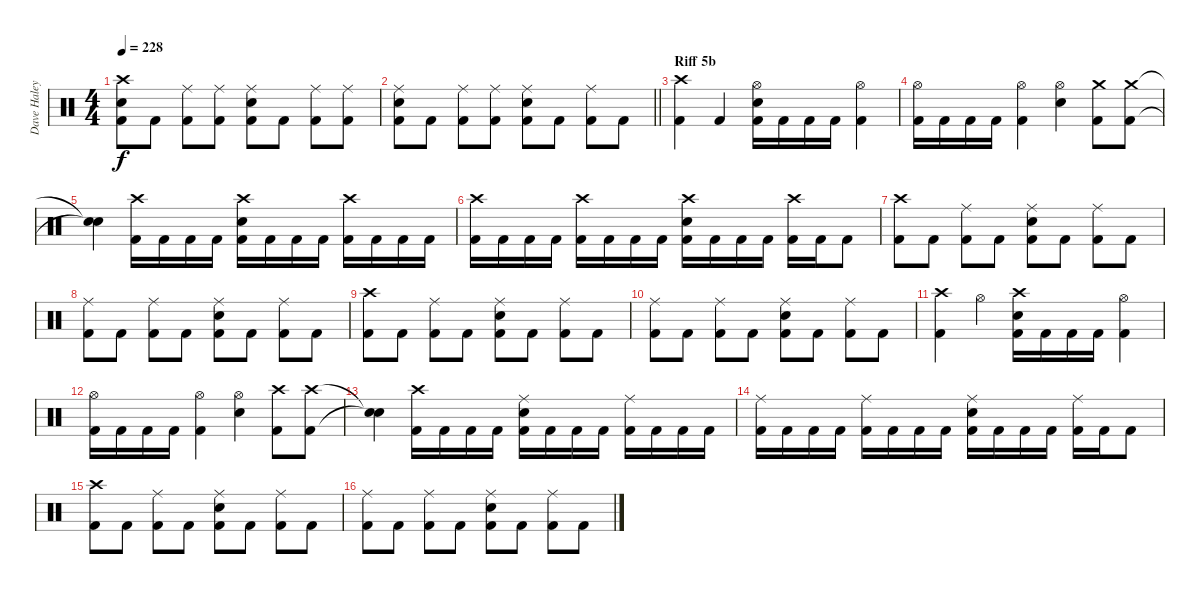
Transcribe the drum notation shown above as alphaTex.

\track ("Dave Haley" "Dave Haley") {instrument percussion}
\staff {score}
\articulation defaults
\ts (4 4)
\tempo 228
\clef neutral
\ks c
("Crash high (hit)" "Snare (hit) 2" "Kick (hit) 2").8{dy f} "Kick (hit) 2".8 ("Ride (middle)" "Kick (hit) 2").8 ("Ride (middle)" "Kick (hit) 2").8 ("Ride (middle)" "Snare (hit) 2" "Kick (hit) 2").8 "Kick (hit) 2".8 ("Ride (middle)" "Kick (hit) 2").8 ("Ride (middle)" "Kick (hit) 2").8 |
\barLineRight lightlight
("Ride (middle)" "Snare (hit) 2" "Kick (hit) 2").8 "Kick (hit) 2".8 ("Ride (middle)" "Kick (hit) 2").8 ("Ride (middle)" "Kick (hit) 2").8 ("Ride (middle)" "Snare (hit) 2" "Kick (hit) 2").8 "Kick (hit) 2".8 ("Ride (middle)" "Kick (hit) 2").8 "Kick (hit) 2".8 |
\section ("" "Riff 5b")
("Crash high (hit)" "Kick (hit) 2").4 "Kick (hit) 2".4 ("Hi-Hat (open)" "Snare (hit) 2" "Kick (hit) 2").16 "Kick (hit) 2".16 "Kick (hit) 2".16 "Kick (hit) 2".16 ("Hi-Hat (open)" "Kick (hit) 2").4 |
("Hi-Hat (open)" "Kick (hit) 2").16 "Kick (hit) 2".16 "Kick (hit) 2".16 "Kick (hit) 2".16 ("Hi-Hat (open)" "Kick (hit) 2").4 ("Hi-Hat (open)" "Snare (hit) 2").4 ("Crash medium (hit)" "Kick (hit) 2").8 ("Crash medium (hit)" "Kick (hit) 2").8 |
("Snare (hit)"{t} "Snare (hit)"{t}).4 ("Crash high (hit)" "Kick (hit) 2").16 "Kick (hit) 2".16 "Kick (hit) 2".16 "Kick (hit) 2".16 ("Crash high (hit)" "Snare (hit) 2" "Kick (hit) 2").16 "Kick (hit) 2".16 "Kick (hit) 2".16 "Kick (hit) 2".16 ("Crash high (hit)" "Kick (hit) 2").16 "Kick (hit) 2".16 "Kick (hit) 2".16 "Kick (hit) 2".16 |
("Crash high (hit)" "Kick (hit) 2").16 "Kick (hit) 2".16 "Kick (hit) 2".16 "Kick (hit) 2".16 ("Crash high (hit)" "Kick (hit) 2").16 "Kick (hit) 2".16 "Kick (hit) 2".16 "Kick (hit) 2".16 ("Crash high (hit)" "Snare (hit) 2" "Kick (hit) 2").16 "Kick (hit) 2".16 "Kick (hit) 2".16 "Kick (hit) 2".16 ("Crash high (hit)" "Kick (hit) 2").16 "Kick (hit) 2".16 "Kick (hit) 2".8 |
("Crash high (hit)" "Kick (hit) 2").8 "Kick (hit) 2".8 ("Ride (middle)" "Kick (hit) 2").8 "Kick (hit) 2".8 ("Ride (middle)" "Snare (hit) 2" "Kick (hit) 2").8 "Kick (hit) 2".8 ("Ride (middle)" "Kick (hit) 2").8 "Kick (hit) 2".8 |
("Ride (middle)" "Kick (hit) 2").8 "Kick (hit) 2".8 ("Ride (middle)" "Kick (hit) 2").8 "Kick (hit) 2".8 ("Ride (middle)" "Snare (hit) 2" "Kick (hit) 2").8 "Kick (hit) 2".8 ("Ride (middle)" "Kick (hit) 2").8 "Kick (hit) 2".8 |
("Crash high (hit)" "Kick (hit) 2").8 "Kick (hit) 2".8 ("Ride (middle)" "Kick (hit) 2").8 "Kick (hit) 2".8 ("Ride (middle)" "Snare (hit) 2" "Kick (hit) 2").8 "Kick (hit) 2".8 ("Ride (middle)" "Kick (hit) 2").8 "Kick (hit) 2".8 |
("Ride (middle)" "Kick (hit) 2").8 "Kick (hit) 2".8 ("Ride (middle)" "Kick (hit) 2").8 "Kick (hit) 2".8 ("Ride (middle)" "Snare (hit) 2" "Kick (hit) 2").8 "Kick (hit) 2".8 ("Ride (middle)" "Kick (hit) 2").8 "Kick (hit) 2".8 |
("Crash high (hit)" "Kick (hit) 2").4 "Hi-Hat (open)".4 ("Crash high (hit)" "Snare (hit) 2" "Kick (hit) 2").16 "Kick (hit) 2".16 "Kick (hit) 2".16 "Kick (hit) 2".16 ("Hi-Hat (open)" "Kick (hit) 2").4 |
("Hi-Hat (open)" "Kick (hit) 2").16 "Kick (hit) 2".16 "Kick (hit) 2".16 "Kick (hit) 2".16 ("Hi-Hat (open)" "Kick (hit) 2").4 ("Hi-Hat (open)" "Snare (hit) 2").4 ("Crash high (hit)" "Kick (hit) 2").8 ("Crash high (hit)" "Kick (hit) 2").8 |
("Snare (hit)"{t} "Snare (hit)"{t}).4 ("Crash high (hit)" "Kick (hit) 2").16 "Kick (hit) 2".16 "Kick (hit) 2".16 "Kick (hit) 2".16 ("Ride (middle)" "Snare (hit) 2" "Kick (hit) 2").16 "Kick (hit) 2".16 "Kick (hit) 2".16 "Kick (hit) 2".16 ("Ride (middle)" "Kick (hit) 2").16 "Kick (hit) 2".16 "Kick (hit) 2".16 "Kick (hit) 2".16 |
("Ride (middle)" "Kick (hit) 2").16 "Kick (hit) 2".16 "Kick (hit) 2".16 "Kick (hit) 2".16 ("Ride (middle)" "Kick (hit) 2").16 "Kick (hit) 2".16 "Kick (hit) 2".16 "Kick (hit) 2".16 ("Ride (middle)" "Snare (hit) 2" "Kick (hit) 2").16 "Kick (hit) 2".16 "Kick (hit) 2".16 "Kick (hit) 2".16 ("Ride (middle)" "Kick (hit) 2").16 "Kick (hit) 2".16 "Kick (hit) 2".8 |
("Crash high (hit)" "Kick (hit) 2").8 "Kick (hit) 2".8 ("Ride (middle)" "Kick (hit) 2").8 "Kick (hit) 2".8 ("Ride (middle)" "Snare (hit) 2" "Kick (hit) 2").8 "Kick (hit) 2".8 ("Ride (middle)" "Kick (hit) 2").8 "Kick (hit) 2".8 |
("Ride (middle)" "Kick (hit) 2").8 "Kick (hit) 2".8 ("Ride (middle)" "Kick (hit) 2").8 "Kick (hit) 2".8 ("Ride (middle)" "Snare (hit) 2" "Kick (hit) 2").8 "Kick (hit) 2".8 ("Ride (middle)" "Kick (hit) 2").8 "Kick (hit) 2".8
